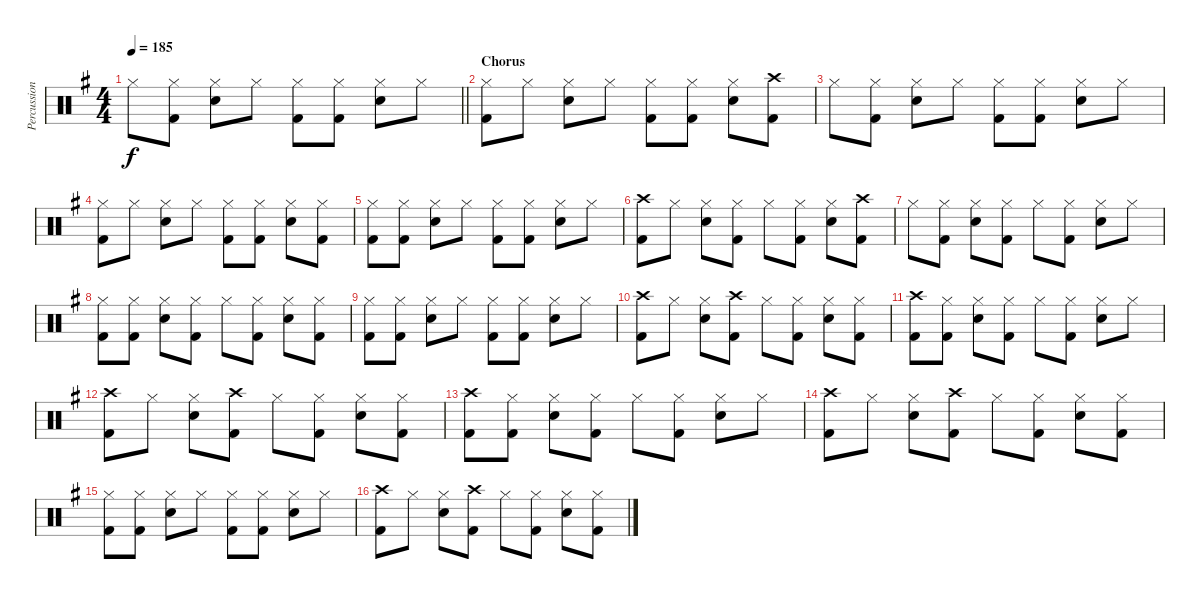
\track ("Percussion" "Percussion") {instrument percussion}
\staff {score}
\articulation defaults
\ts (4 4)
\tempo 185
\clef neutral
\barLineRight lightlight
\ks g "Hi-Hat (closed)".8{dy f}
("Hi-Hat (closed)" "Kick (hit) 2").8 ("Hi-Hat (closed)" "Snare (hit) 2").8 "Hi-Hat (closed)".8 ("Hi-Hat (closed)" "Kick (hit) 2").8 ("Hi-Hat (closed)" "Kick (hit) 2").8 ("Hi-Hat (closed)" "Snare (hit) 2").8 "Hi-Hat (closed)".8 |
\section ("" "Chorus")
("Hi-Hat (closed)" "Kick (hit) 2").8 "Hi-Hat (closed)".8 ("Hi-Hat (closed)" "Snare (hit) 2").8 "Hi-Hat (closed)".8 ("Hi-Hat (closed)" "Kick (hit) 2").8 ("Hi-Hat (closed)" "Kick (hit) 2").8 ("Hi-Hat (closed)" "Snare (hit) 2").8 ("Crash high (hit)" "Kick (hit) 2").8 |
"Hi-Hat (closed)".8 ("Hi-Hat (closed)" "Kick (hit) 2").8 ("Hi-Hat (closed)" "Snare (hit) 2").8 "Hi-Hat (closed)".8 ("Hi-Hat (closed)" "Kick (hit) 2").8 ("Hi-Hat (closed)" "Kick (hit) 2").8 ("Hi-Hat (closed)" "Snare (hit) 2").8 "Hi-Hat (closed)".8 |
("Hi-Hat (closed)" "Kick (hit) 2").8 "Hi-Hat (closed)".8 ("Hi-Hat (closed)" "Snare (hit) 2").8 "Hi-Hat (closed)".8 ("Hi-Hat (closed)" "Kick (hit) 2").8 ("Hi-Hat (closed)" "Kick (hit) 2").8 ("Hi-Hat (closed)" "Snare (hit) 2").8 ("Hi-Hat (closed)" "Kick (hit) 2").8 |
("Hi-Hat (closed)" "Kick (hit) 2").8 ("Hi-Hat (closed)" "Kick (hit) 2").8 ("Hi-Hat (closed)" "Snare (hit) 2").8 "Hi-Hat (closed)".8 ("Hi-Hat (closed)" "Kick (hit) 2").8 ("Hi-Hat (closed)" "Kick (hit) 2").8 ("Hi-Hat (closed)" "Snare (hit) 2").8 "Hi-Hat (closed)".8 |
("Crash high (hit)" "Kick (hit) 2").8 "Hi-Hat (closed)".8 ("Hi-Hat (closed)" "Snare (hit) 2").8 ("Hi-Hat (closed)" "Kick (hit) 2").8 "Hi-Hat (closed)".8 ("Hi-Hat (closed)" "Kick (hit) 2").8 ("Hi-Hat (closed)" "Snare (hit) 2").8 ("Crash high (hit)" "Kick (hit) 2").8 |
"Hi-Hat (closed)".8 ("Hi-Hat (closed)" "Kick (hit) 2").8 ("Hi-Hat (closed)" "Snare (hit) 2").8 ("Hi-Hat (closed)" "Kick (hit) 2").8 "Hi-Hat (closed)".8 ("Hi-Hat (closed)" "Kick (hit) 2").8 ("Hi-Hat (closed)" "Snare (hit) 2").8 "Hi-Hat (closed)".8 |
("Hi-Hat (closed)" "Kick (hit) 2").8 ("Hi-Hat (closed)" "Kick (hit) 2").8 ("Hi-Hat (closed)" "Snare (hit) 2").8 ("Hi-Hat (closed)" "Kick (hit) 2").8 "Hi-Hat (closed)".8 ("Hi-Hat (closed)" "Kick (hit) 2").8 ("Hi-Hat (closed)" "Snare (hit) 2").8 ("Hi-Hat (closed)" "Kick (hit) 2").8 |
("Hi-Hat (closed)" "Kick (hit) 2").8 ("Hi-Hat (closed)" "Kick (hit) 2").8 ("Hi-Hat (closed)" "Snare (hit) 2").8 "Hi-Hat (closed)".8 ("Hi-Hat (closed)" "Kick (hit) 2").8 ("Hi-Hat (closed)" "Kick (hit) 2").8 ("Hi-Hat (closed)" "Snare (hit) 2").8 "Hi-Hat (closed)".8 |
("Crash high (hit)" "Kick (hit) 2").8 "Hi-Hat (closed)".8 ("Hi-Hat (closed)" "Snare (hit) 2").8 ("Crash high (hit)" "Kick (hit) 2").8 "Hi-Hat (closed)".8 ("Hi-Hat (closed)" "Kick (hit) 2").8 ("Hi-Hat (closed)" "Snare (hit) 2").8 ("Hi-Hat (closed)" "Kick (hit) 2").8 |
("Crash high (hit)" "Kick (hit) 2").8 ("Hi-Hat (closed)" "Kick (hit) 2").8 ("Hi-Hat (closed)" "Snare (hit) 2").8 ("Hi-Hat (closed)" "Kick (hit) 2").8 "Hi-Hat (closed)".8 ("Hi-Hat (closed)" "Kick (hit) 2").8 ("Hi-Hat (closed)" "Snare (hit) 2").8 "Hi-Hat (closed)".8 |
("Crash high (hit)" "Kick (hit) 2").8 "Hi-Hat (closed)".8 ("Hi-Hat (closed)" "Snare (hit) 2").8 ("Crash high (hit)" "Kick (hit) 2").8 "Hi-Hat (closed)".8 ("Hi-Hat (closed)" "Kick (hit) 2").8 ("Hi-Hat (closed)" "Snare (hit) 2").8 ("Hi-Hat (closed)" "Kick (hit) 2").8 |
("Kick (hit) 2" "Crash high (hit)").8 ("Kick (hit) 2" "Hi-Hat (closed)").8 ("Snare (hit) 2" "Hi-Hat (closed)").8 ("Kick (hit) 2" "Hi-Hat (closed)").8 "Hi-Hat (closed)".8 ("Kick (hit) 2" "Hi-Hat (closed)").8 ("Snare (hit) 2" "Hi-Hat (closed)").8 "Hi-Hat (closed)".8 |
("Crash high (hit)" "Kick (hit) 2").8 "Hi-Hat (closed)".8 ("Hi-Hat (closed)" "Snare (hit) 2").8 ("Crash high (hit)" "Kick (hit) 2").8 "Hi-Hat (closed)".8 ("Hi-Hat (closed)" "Kick (hit) 2").8 ("Hi-Hat (closed)" "Snare (hit) 2").8 ("Hi-Hat (closed)" "Kick (hit) 2").8 |
("Hi-Hat (closed)" "Kick (hit) 2").8 ("Hi-Hat (closed)" "Kick (hit) 2").8 ("Hi-Hat (closed)" "Snare (hit) 2").8 "Hi-Hat (closed)".8 ("Hi-Hat (closed)" "Kick (hit) 2").8 ("Hi-Hat (closed)" "Kick (hit) 2").8 ("Hi-Hat (closed)" "Snare (hit) 2").8 "Hi-Hat (closed)".8 |
("Crash high (hit)" "Kick (hit) 2").8 "Hi-Hat (closed)".8 ("Hi-Hat (closed)" "Snare (hit) 2").8 ("Crash high (hit)" "Kick (hit) 2").8 "Hi-Hat (closed)".8 ("Hi-Hat (closed)" "Kick (hit) 2").8 ("Hi-Hat (closed)" "Snare (hit) 2").8 ("Hi-Hat (closed)" "Kick (hit) 2").8
